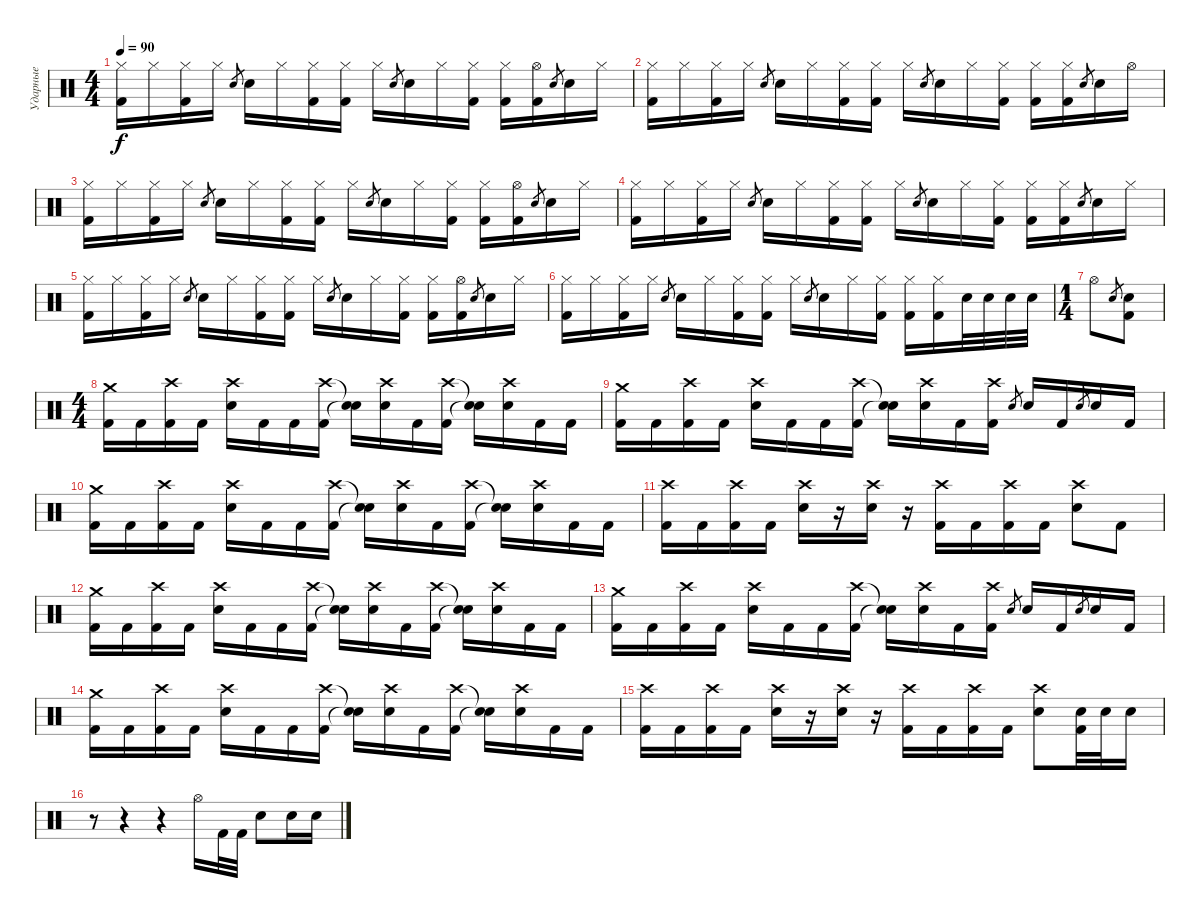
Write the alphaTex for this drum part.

\track ("Ударные" "Ударные") {instrument percussion}
\staff {score}
\articulation defaults
\ts (4 4)
\tempo 90
\clef neutral
\ks c
("Hi-Hat (closed)" "Kick (hit) 2").16{dy f} "Hi-Hat (closed)".16 ("Hi-Hat (closed)" "Kick (hit) 2").16 "Hi-Hat (closed)".16 "Electric Snare (hit)".8{gr} "Electric Snare (hit)".16 "Hi-Hat (closed)".16 ("Hi-Hat (closed)" "Kick (hit) 2").16 ("Hi-Hat (closed)" "Kick (hit) 2").16 "Hi-Hat (closed)".16 "Electric Snare (hit)".8{gr} "Electric Snare (hit)".16 "Hi-Hat (closed)".16 ("Hi-Hat (closed)" "Kick (hit) 2").16 ("Hi-Hat (closed)" "Kick (hit) 2").16 ("Hi-Hat (open)" "Kick (hit) 2").16 "Electric Snare (hit)".8{gr} "Electric Snare (hit)".16 "Hi-Hat (closed)".16 |
("Hi-Hat (closed)" "Kick (hit) 2").16 "Hi-Hat (closed)".16 ("Hi-Hat (closed)" "Kick (hit) 2").16 "Hi-Hat (closed)".16 "Electric Snare (hit)".8{gr} "Electric Snare (hit)".16 "Hi-Hat (closed)".16 ("Hi-Hat (closed)" "Kick (hit) 2").16 ("Hi-Hat (closed)" "Kick (hit) 2").16 "Hi-Hat (closed)".16 "Electric Snare (hit)".8{gr} "Electric Snare (hit)".16 "Hi-Hat (closed)".16 ("Hi-Hat (closed)" "Kick (hit) 2").16 ("Hi-Hat (closed)" "Kick (hit) 2").16 ("Hi-Hat (closed)" "Kick (hit) 2").16 "Electric Snare (hit)".8{gr} "Electric Snare (hit)".16 "Hi-Hat (open)".16 |
("Hi-Hat (closed)" "Kick (hit) 2").16 "Hi-Hat (closed)".16 ("Hi-Hat (closed)" "Kick (hit) 2").16 "Hi-Hat (closed)".16 "Electric Snare (hit)".8{gr} "Electric Snare (hit)".16 "Hi-Hat (closed)".16 ("Hi-Hat (closed)" "Kick (hit) 2").16 ("Hi-Hat (closed)" "Kick (hit) 2").16 "Hi-Hat (closed)".16 "Electric Snare (hit)".8{gr} "Electric Snare (hit)".16 "Hi-Hat (closed)".16 ("Hi-Hat (closed)" "Kick (hit) 2").16 ("Hi-Hat (closed)" "Kick (hit) 2").16 ("Hi-Hat (open)" "Kick (hit) 2").16 "Electric Snare (hit)".8{gr} "Electric Snare (hit)".16 "Hi-Hat (closed)".16 |
("Hi-Hat (closed)" "Kick (hit) 2").16 "Hi-Hat (closed)".16 ("Hi-Hat (closed)" "Kick (hit) 2").16 "Hi-Hat (closed)".16 "Electric Snare (hit)".8{gr} "Electric Snare (hit)".16 "Hi-Hat (closed)".16 ("Hi-Hat (closed)" "Kick (hit) 2").16 ("Hi-Hat (closed)" "Kick (hit) 2").16 "Hi-Hat (closed)".16 "Electric Snare (hit)".8{gr} "Electric Snare (hit)".16 "Hi-Hat (closed)".16 ("Hi-Hat (closed)" "Kick (hit) 2").16 ("Hi-Hat (closed)" "Kick (hit) 2").16 ("Hi-Hat (closed)" "Kick (hit) 2").16 "Electric Snare (hit)".8{gr} "Electric Snare (hit)".16 "Hi-Hat (closed)".16 |
("Hi-Hat (closed)" "Kick (hit) 2").16 "Hi-Hat (closed)".16 ("Hi-Hat (closed)" "Kick (hit) 2").16 "Hi-Hat (closed)".16 "Electric Snare (hit)".8{gr} "Electric Snare (hit)".16 "Hi-Hat (closed)".16 ("Hi-Hat (closed)" "Kick (hit) 2").16 ("Hi-Hat (closed)" "Kick (hit) 2").16 "Hi-Hat (closed)".16 "Electric Snare (hit)".8{gr} "Electric Snare (hit)".16 "Hi-Hat (closed)".16 ("Hi-Hat (closed)" "Kick (hit) 2").16 ("Hi-Hat (closed)" "Kick (hit) 2").16 ("Hi-Hat (open)" "Kick (hit) 2").16 "Electric Snare (hit)".8{gr} "Electric Snare (hit)".16 "Hi-Hat (closed)".16 |
("Hi-Hat (closed)" "Kick (hit) 2").16 "Hi-Hat (closed)".16 ("Hi-Hat (closed)" "Kick (hit) 2").16 "Hi-Hat (closed)".16 "Electric Snare (hit)".8{gr} "Electric Snare (hit)".16 "Hi-Hat (closed)".16 ("Hi-Hat (closed)" "Kick (hit) 2").16 ("Hi-Hat (closed)" "Kick (hit) 2").16 "Hi-Hat (closed)".16 "Electric Snare (hit)".8{gr} "Electric Snare (hit)".16 "Hi-Hat (closed)".16 ("Hi-Hat (closed)" "Kick (hit) 2").16 ("Hi-Hat (closed)" "Kick (hit) 2").16 ("Hi-Hat (closed)" "Kick (hit) 2").16 "Electric Snare (hit)".32 "Electric Snare (hit)".32 "Electric Snare (hit)".32 "Electric Snare (hit)".32 |
\ts (1 4)
"Hi-Hat (open)".8 "Electric Snare (hit)".8{gr} ("Electric Snare (hit)" "Kick (hit) 2").8 |
\ts (4 4)
("Crash medium (hit)" "Kick (hit) 2").16 "Kick (hit) 2".16 ("Crash high (hit)" "Kick (hit) 2").16 "Kick (hit) 2".16 ("Crash high (hit)" "Electric Snare (hit)").16 "Kick (hit) 2".16 "Kick (hit) 2".16 ("Crash high (hit)" "Kick (hit) 2").16 ("Snare (hit)"{t} "Snare (hit)"{t}).16 ("Crash high (hit)" "Electric Snare (hit)").16 "Kick (hit) 2".16 ("Crash high (hit)" "Kick (hit) 2").16 ("Snare (hit)"{t} "Snare (hit)"{t}).16 ("Crash high (hit)" "Electric Snare (hit)").16 "Kick (hit) 2".16 "Kick (hit) 2".16 |
("Crash medium (hit)" "Kick (hit) 2").16 "Kick (hit) 2".16 ("Crash high (hit)" "Kick (hit) 2").16 "Kick (hit) 2".16 ("Crash high (hit)" "Electric Snare (hit)").16 "Kick (hit) 2".16 "Kick (hit) 2".16 ("Crash high (hit)" "Kick (hit) 2").16 ("Snare (hit)"{t} "Snare (hit)"{t}).16 ("Crash high (hit)" "Electric Snare (hit)").16 "Kick (hit) 2".16 ("Crash high (hit)" "Kick (hit) 2").16 "Electric Snare (hit)".8{gr} "Electric Snare (hit)".16 "Kick (hit) 2".16 "Electric Snare (hit)".8{gr} "Electric Snare (hit)".16 "Kick (hit) 2".16 |
("Crash medium (hit)" "Kick (hit) 2").16 "Kick (hit) 2".16 ("Crash high (hit)" "Kick (hit) 2").16 "Kick (hit) 2".16 ("Crash high (hit)" "Electric Snare (hit)").16 "Kick (hit) 2".16 "Kick (hit) 2".16 ("Crash high (hit)" "Kick (hit) 2").16 ("Snare (hit)"{t} "Snare (hit)"{t}).16 ("Crash high (hit)" "Electric Snare (hit)").16 "Kick (hit) 2".16 ("Crash high (hit)" "Kick (hit) 2").16 ("Snare (hit)"{t} "Snare (hit)"{t}).16 ("Crash high (hit)" "Electric Snare (hit)").16 "Kick (hit) 2".16 "Kick (hit) 2".16 |
("Crash high (hit)" "Kick (hit) 2").16 "Kick (hit) 2".16 ("Crash high (hit)" "Kick (hit) 2").16 "Kick (hit) 2".16 ("Crash high (hit)" "Electric Snare (hit)").16 r.16 ("Crash high (hit)" "Electric Snare (hit)").16 r.16 ("Crash high (hit)" "Kick (hit) 2").16 "Kick (hit) 2".16 ("Crash high (hit)" "Kick (hit) 2").16 "Kick (hit) 2".16 ("Crash high (hit)" "Electric Snare (hit)").8 "Kick (hit) 2".8 |
("Crash medium (hit)" "Kick (hit) 2").16 "Kick (hit) 2".16 ("Crash high (hit)" "Kick (hit) 2").16 "Kick (hit) 2".16 ("Crash high (hit)" "Electric Snare (hit)").16 "Kick (hit) 2".16 "Kick (hit) 2".16 ("Crash high (hit)" "Kick (hit) 2").16 ("Snare (hit)"{t} "Snare (hit)"{t}).16 ("Crash high (hit)" "Electric Snare (hit)").16 "Kick (hit) 2".16 ("Crash high (hit)" "Kick (hit) 2").16 ("Snare (hit)"{t} "Snare (hit)"{t}).16 ("Crash high (hit)" "Electric Snare (hit)").16 "Kick (hit) 2".16 "Kick (hit) 2".16 |
("Crash medium (hit)" "Kick (hit) 2").16 "Kick (hit) 2".16 ("Crash high (hit)" "Kick (hit) 2").16 "Kick (hit) 2".16 ("Crash high (hit)" "Electric Snare (hit)").16 "Kick (hit) 2".16 "Kick (hit) 2".16 ("Crash high (hit)" "Kick (hit) 2").16 ("Snare (hit)"{t} "Snare (hit)"{t}).16 ("Crash high (hit)" "Electric Snare (hit)").16 "Kick (hit) 2".16 ("Crash high (hit)" "Kick (hit) 2").16 "Electric Snare (hit)".8{gr} "Electric Snare (hit)".16 "Kick (hit) 2".16 "Electric Snare (hit)".8{gr} "Electric Snare (hit)".16 "Kick (hit) 2".16 |
("Crash medium (hit)" "Kick (hit) 2").16 "Kick (hit) 2".16 ("Crash high (hit)" "Kick (hit) 2").16 "Kick (hit) 2".16 ("Crash high (hit)" "Electric Snare (hit)").16 "Kick (hit) 2".16 "Kick (hit) 2".16 ("Crash high (hit)" "Kick (hit) 2").16 ("Snare (hit)"{t} "Snare (hit)"{t}).16 ("Crash high (hit)" "Electric Snare (hit)").16 "Kick (hit) 2".16 ("Crash high (hit)" "Kick (hit) 2").16 ("Snare (hit)"{t} "Snare (hit)"{t}).16 ("Crash high (hit)" "Electric Snare (hit)").16 "Kick (hit) 2".16 "Kick (hit) 2".16 |
("Crash high (hit)" "Kick (hit) 2").16 "Kick (hit) 2".16 ("Crash high (hit)" "Kick (hit) 2").16 "Kick (hit) 2".16 ("Crash high (hit)" "Electric Snare (hit)").16 r.16 ("Crash high (hit)" "Electric Snare (hit)").16 r.16 ("Crash high (hit)" "Kick (hit) 2").16 "Kick (hit) 2".16 ("Crash high (hit)" "Kick (hit) 2").16 "Kick (hit) 2".16 ("Crash high (hit)" "Electric Snare (hit)").8 ("Electric Snare (hit)" "Kick (hit) 2").32 "Electric Snare (hit)".32 "Electric Snare (hit)".16 |
r.8 r.4 r.4 "Hi-Hat (open)".16 "Kick (hit) 2".32 "Kick (hit) 2".32 "Electric Snare (hit)".8 "Electric Snare (hit)".16 "Electric Snare (hit)".16
